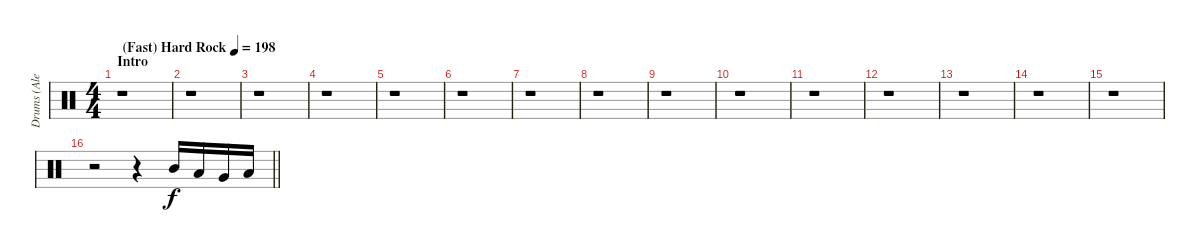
\track ("Drums (Alex Van Halen)" "Drums (Ale") {instrument percussion}
\staff {score}
\articulation defaults
\ts (4 4)
\section ("" "Intro")
\tempo (198 "(Fast) Hard Rock")
\clef neutral
\ks c
r.1{dy f} |
r.1 |
r.1 |
r.1 |
r.1 |
r.1 |
r.1 |
r.1 |
r.1 |
r.1 |
r.1 |
r.1 |
r.1 |
r.1 |
r.1 |
\barLineRight lightlight
r.2 r.4 "Mid Tom (hit)".16 "Low Tom (hit)".16 "Very Low Tom (hit)".16 "Low Floor Tom (hit)".16
